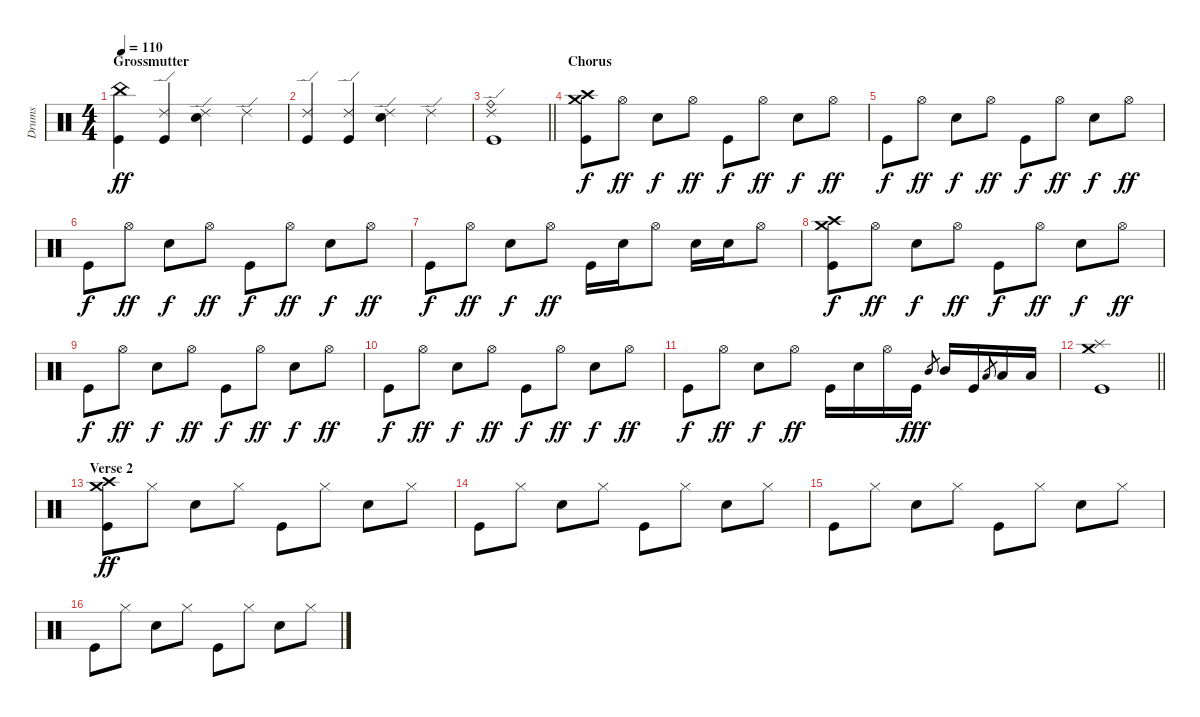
\track ("Drums" "Drums") {instrument percussion}
\staff {score}
\articulation defaults
\ts (4 4)
\section ("" "Grossmutter")
\tempo 110
\clef neutral
\ks c
("China (hit)" "Kick (hit)").4{dy ff} ("Ride (edge) 2" "Kick (hit)").4 ("Ride (edge) 2" "Snare (hit) 2").4 "Ride (edge) 2".4 |
("Ride (edge) 2" "Kick (hit)").4 ("Ride (edge) 2" "Kick (hit)").4 ("Ride (edge) 2" "Snare (hit) 2").4 "Ride (edge) 2".4 |
\barLineRight lightlight
("Ride (edge) 2" "Ride (bell)" "Kick (hit)").1 |
\section ("" "Chorus")
("Crash high (hit)" "Crash medium (hit)" "Kick (hit)").8{dy f} "Hi-Hat (open)".8{dy ff} "Snare (hit) 2".8{dy f} "Hi-Hat (open)".8{dy ff} "Kick (hit)".8{dy f} "Hi-Hat (open)".8{dy ff} "Snare (hit) 2".8{dy f} "Hi-Hat (open)".8{dy ff} |
"Kick (hit)".8{dy f} "Hi-Hat (open)".8{dy ff} "Snare (hit) 2".8{dy f} "Hi-Hat (open)".8{dy ff} "Kick (hit)".8{dy f} "Hi-Hat (open)".8{dy ff} "Snare (hit) 2".8{dy f} "Hi-Hat (open)".8{dy ff} |
"Kick (hit)".8{dy f} "Hi-Hat (open)".8{dy ff} "Snare (hit) 2".8{dy f} "Hi-Hat (open)".8{dy ff} "Kick (hit)".8{dy f} "Hi-Hat (open)".8{dy ff} "Snare (hit) 2".8{dy f} "Hi-Hat (open)".8{dy ff} |
"Kick (hit)".8{dy f} "Hi-Hat (open)".8{dy ff} "Snare (hit) 2".8{dy f} "Hi-Hat (open)".8{dy ff} "Kick (hit)".16 "Snare (hit) 2".16 "Hi-Hat (open)".8 "Snare (hit) 2".16 "Snare (hit) 2".16 "Hi-Hat (open)".8 |
("Crash high (hit)" "Crash medium (hit)" "Kick (hit)").8{dy f} "Hi-Hat (open)".8{dy ff} "Snare (hit) 2".8{dy f} "Hi-Hat (open)".8{dy ff} "Kick (hit)".8{dy f} "Hi-Hat (open)".8{dy ff} "Snare (hit) 2".8{dy f} "Hi-Hat (open)".8{dy ff} |
"Kick (hit)".8{dy f} "Hi-Hat (open)".8{dy ff} "Snare (hit) 2".8{dy f} "Hi-Hat (open)".8{dy ff} "Kick (hit)".8{dy f} "Hi-Hat (open)".8{dy ff} "Snare (hit) 2".8{dy f} "Hi-Hat (open)".8{dy ff} |
"Kick (hit)".8{dy f} "Hi-Hat (open)".8{dy ff} "Snare (hit) 2".8{dy f} "Hi-Hat (open)".8{dy ff} "Kick (hit)".8{dy f} "Hi-Hat (open)".8{dy ff} "Snare (hit) 2".8{dy f} "Hi-Hat (open)".8{dy ff} |
"Kick (hit)".8{dy f} "Hi-Hat (open)".8{dy ff} "Snare (hit) 2".8{dy f} "Hi-Hat (open)".8{dy ff} "Kick (hit)".16 "Snare (hit) 2".16 "Hi-Hat (open)".16 "Kick (hit)".16{dy fff} "Mid Tom (hit)".8{gr} "Mid Tom (hit)".16 "Kick (hit)".16 "Low Tom (hit)".8{gr} "Low Tom (hit)".16 "Low Tom (hit)".16 |
\barLineRight lightlight
("Crash medium (hit)" "Splash (hit)" "Kick (hit)").1 |
\section ("" "Verse 2")
("Crash high (hit)" "Crash medium (hit)" "Kick (hit)").8{dy ff} "Hi-Hat (closed)".8 "Snare (hit) 2".8 "Hi-Hat (closed)".8 "Kick (hit)".8 "Hi-Hat (closed)".8 "Snare (hit) 2".8 "Hi-Hat (closed)".8 |
"Kick (hit)".8 "Hi-Hat (closed)".8 "Snare (hit) 2".8 "Hi-Hat (closed)".8 "Kick (hit)".8 "Hi-Hat (closed)".8 "Snare (hit) 2".8 "Hi-Hat (closed)".8 |
"Kick (hit)".8 "Hi-Hat (closed)".8 "Snare (hit) 2".8 "Hi-Hat (closed)".8 "Kick (hit)".8 "Hi-Hat (closed)".8 "Snare (hit) 2".8 "Hi-Hat (closed)".8 |
"Kick (hit)".8 "Hi-Hat (closed)".8 "Snare (hit) 2".8 "Hi-Hat (closed)".8 "Kick (hit)".8 "Hi-Hat (closed)".8 "Snare (hit) 2".8 "Hi-Hat (closed)".8
